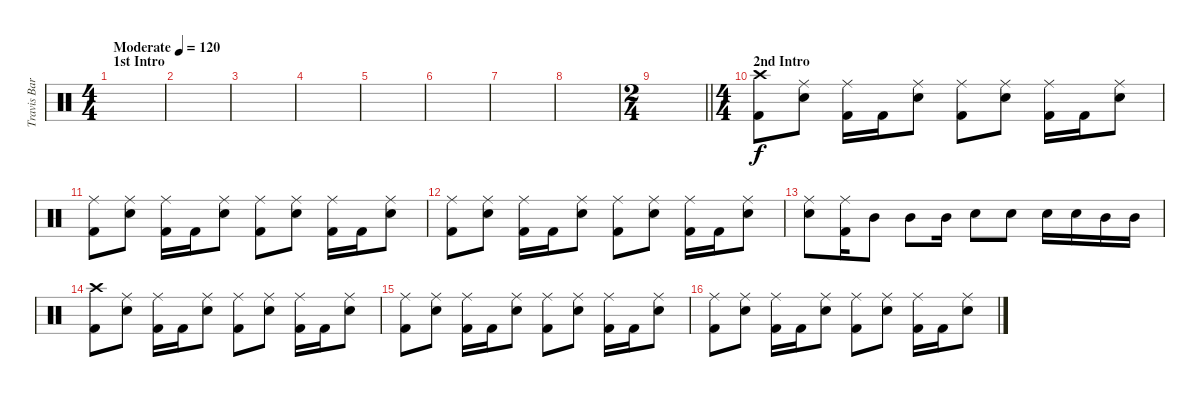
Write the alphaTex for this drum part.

\track ("Travis Barker - Drums" "Travis Bar") {instrument percussion}
\staff {score}
\articulation defaults
\ts (4 4)
\section ("" "1st Intro")
\tempo (120 "Moderate")
\clef neutral
\ks c
|
|
|
|
|
|
|
|
\ts (2 4)
\barLineRight lightlight
|
\ts (4 4)
\section ("" "2nd Intro")
("Crash high (hit)" "Kick (hit) 2").8 ("Ride (middle)" "Electric Snare (hit)").8 ("Ride (middle)" "Kick (hit) 2").16 "Kick (hit) 2".16 ("Ride (middle)" "Electric Snare (hit)").8 ("Ride (middle)" "Kick (hit) 2").8 ("Ride (middle)" "Electric Snare (hit)").8 ("Ride (middle)" "Kick (hit) 2").16 "Kick (hit) 2".16 ("Ride (middle)" "Electric Snare (hit)").8 |
("Ride (middle)" "Kick (hit) 2").8 ("Ride (middle)" "Electric Snare (hit)").8 ("Ride (middle)" "Kick (hit) 2").16 "Kick (hit) 2".16 ("Ride (middle)" "Electric Snare (hit)").8 ("Ride (middle)" "Kick (hit) 2").8 ("Ride (middle)" "Electric Snare (hit)").8 ("Ride (middle)" "Kick (hit) 2").16 "Kick (hit) 2".16 ("Ride (middle)" "Electric Snare (hit)").8 |
("Ride (middle)" "Kick (hit) 2").8 ("Ride (middle)" "Electric Snare (hit)").8 ("Ride (middle)" "Kick (hit) 2").16 "Kick (hit) 2".16 ("Ride (middle)" "Electric Snare (hit)").8 ("Ride (middle)" "Kick (hit) 2").8 ("Ride (middle)" "Electric Snare (hit)").8 ("Ride (middle)" "Kick (hit) 2").16 "Kick (hit) 2".16 ("Ride (middle)" "Electric Snare (hit)").8 |
("Ride (middle)" "Electric Snare (hit)").8 ("Ride (middle)" "Kick (hit) 2").16 "Mid Tom (hit)".8 "Mid Tom (hit)".8 "Mid Tom (hit)".16 "Electric Snare (hit)".8 "Electric Snare (hit)".8 "Electric Snare (hit)".16 "Electric Snare (hit)".16 "Mid Tom (hit)".16 "Mid Tom (hit)".16 |
("Crash high (hit)" "Kick (hit) 2").8 ("Ride (middle)" "Electric Snare (hit)").8 ("Ride (middle)" "Kick (hit) 2").16 "Kick (hit) 2".16 ("Ride (middle)" "Electric Snare (hit)").8 ("Ride (middle)" "Kick (hit) 2").8 ("Ride (middle)" "Electric Snare (hit)").8 ("Ride (middle)" "Kick (hit) 2").16 "Kick (hit) 2".16 ("Ride (middle)" "Electric Snare (hit)").8 |
("Ride (middle)" "Kick (hit) 2").8 ("Ride (middle)" "Electric Snare (hit)").8 ("Ride (middle)" "Kick (hit) 2").16 "Kick (hit) 2".16 ("Ride (middle)" "Electric Snare (hit)").8 ("Ride (middle)" "Kick (hit) 2").8 ("Ride (middle)" "Electric Snare (hit)").8 ("Ride (middle)" "Kick (hit) 2").16 "Kick (hit) 2".16 ("Ride (middle)" "Electric Snare (hit)").8 |
("Ride (middle)" "Kick (hit) 2").8 ("Ride (middle)" "Electric Snare (hit)").8 ("Ride (middle)" "Kick (hit) 2").16 "Kick (hit) 2".16 ("Ride (middle)" "Electric Snare (hit)").8 ("Ride (middle)" "Kick (hit) 2").8 ("Ride (middle)" "Electric Snare (hit)").8 ("Ride (middle)" "Kick (hit) 2").16 "Kick (hit) 2".16 ("Ride (middle)" "Electric Snare (hit)").8
